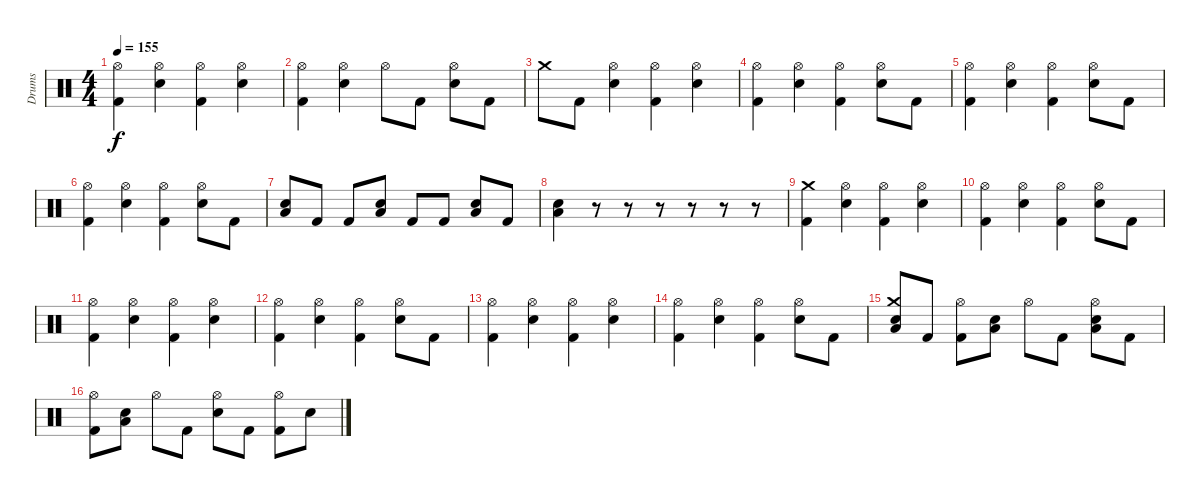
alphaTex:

\track ("Drums" "Drums") {instrument percussion}
\staff {score}
\articulation defaults
\ts (4 4)
\tempo 155
\clef neutral
\ks c
("Hi-Hat (open)" "Kick (hit) 2").4{dy f} ("Hi-Hat (open)" "Snare (hit) 2").4 ("Hi-Hat (open)" "Kick (hit) 2").4 ("Hi-Hat (open)" "Snare (hit) 2").4 |
("Hi-Hat (open)" "Kick (hit) 2").4 ("Hi-Hat (open)" "Snare (hit) 2").4 "Hi-Hat (open)".8 "Kick (hit) 2".8 ("Hi-Hat (open)" "Snare (hit) 2").8 "Kick (hit) 2".8 |
"Crash medium (hit)".8 "Kick (hit) 2".8 ("Hi-Hat (open)" "Snare (hit) 2").4 ("Hi-Hat (open)" "Kick (hit) 2").4 ("Hi-Hat (open)" "Snare (hit) 2").4 |
("Hi-Hat (open)" "Kick (hit) 2").4 ("Hi-Hat (open)" "Snare (hit) 2").4 ("Hi-Hat (open)" "Kick (hit) 2").4 ("Hi-Hat (open)" "Snare (hit) 2").8 "Kick (hit) 2".8 |
("Hi-Hat (open)" "Kick (hit) 2").4 ("Hi-Hat (open)" "Snare (hit) 2").4 ("Hi-Hat (open)" "Kick (hit) 2").4 ("Hi-Hat (open)" "Snare (hit) 2").8 "Kick (hit) 2".8 |
("Hi-Hat (open)" "Kick (hit) 2").4 ("Hi-Hat (open)" "Snare (hit) 2").4 ("Hi-Hat (open)" "Kick (hit) 2").4 ("Hi-Hat (open)" "Snare (hit) 2").8 "Kick (hit) 2".8 |
("Snare (hit) 2" "Low Floor Tom (hit)").8 "Kick (hit) 2".8 "Kick (hit) 2".8 ("Snare (hit) 2" "Low Floor Tom (hit)").8 "Kick (hit) 2".8 "Kick (hit) 2".8 ("Snare (hit) 2" "Low Floor Tom (hit)").8 "Kick (hit) 2".8 |
("Snare (hit) 2" "Low Floor Tom (hit)").4 r.8 r.8 r.8 r.8 r.8 r.8 |
("Crash medium (hit)" "Kick (hit) 2").4 ("Hi-Hat (open)" "Snare (hit) 2").4 ("Hi-Hat (open)" "Kick (hit) 2").4 ("Hi-Hat (open)" "Snare (hit) 2").4 |
("Hi-Hat (open)" "Kick (hit) 2").4 ("Hi-Hat (open)" "Snare (hit) 2").4 ("Hi-Hat (open)" "Kick (hit) 2").4 ("Hi-Hat (open)" "Snare (hit) 2").8 "Kick (hit) 2".8 |
("Hi-Hat (open)" "Kick (hit) 2").4 ("Hi-Hat (open)" "Snare (hit) 2").4 ("Hi-Hat (open)" "Kick (hit) 2").4 ("Hi-Hat (open)" "Snare (hit) 2").4 |
("Hi-Hat (open)" "Kick (hit) 2").4 ("Hi-Hat (open)" "Snare (hit) 2").4 ("Hi-Hat (open)" "Kick (hit) 2").4 ("Hi-Hat (open)" "Snare (hit) 2").8 "Kick (hit) 2".8 |
("Hi-Hat (open)" "Kick (hit) 2").4 ("Hi-Hat (open)" "Snare (hit) 2").4 ("Hi-Hat (open)" "Kick (hit) 2").4 ("Hi-Hat (open)" "Snare (hit) 2").4 |
("Hi-Hat (open)" "Kick (hit) 2").4 ("Hi-Hat (open)" "Snare (hit) 2").4 ("Hi-Hat (open)" "Kick (hit) 2").4 ("Hi-Hat (open)" "Snare (hit) 2").8 "Kick (hit) 2".8 |
("Crash medium (hit)" "Snare (hit) 2" "Low Floor Tom (hit)").8 "Kick (hit) 2".8 ("Hi-Hat (open)" "Kick (hit) 2").8 ("Snare (hit) 2" "Low Floor Tom (hit)").8 "Hi-Hat (open)".8 "Kick (hit) 2".8 ("Hi-Hat (open)" "Snare (hit) 2" "Low Floor Tom (hit)").8 "Kick (hit) 2".8 |
("Hi-Hat (open)" "Kick (hit) 2").8 ("Snare (hit) 2" "Low Floor Tom (hit)").8 "Hi-Hat (open)".8 "Kick (hit) 2".8 ("Hi-Hat (open)" "Snare (hit) 2").8 "Kick (hit) 2".8 ("Hi-Hat (open)" "Kick (hit) 2").8 "Snare (hit) 2".8
